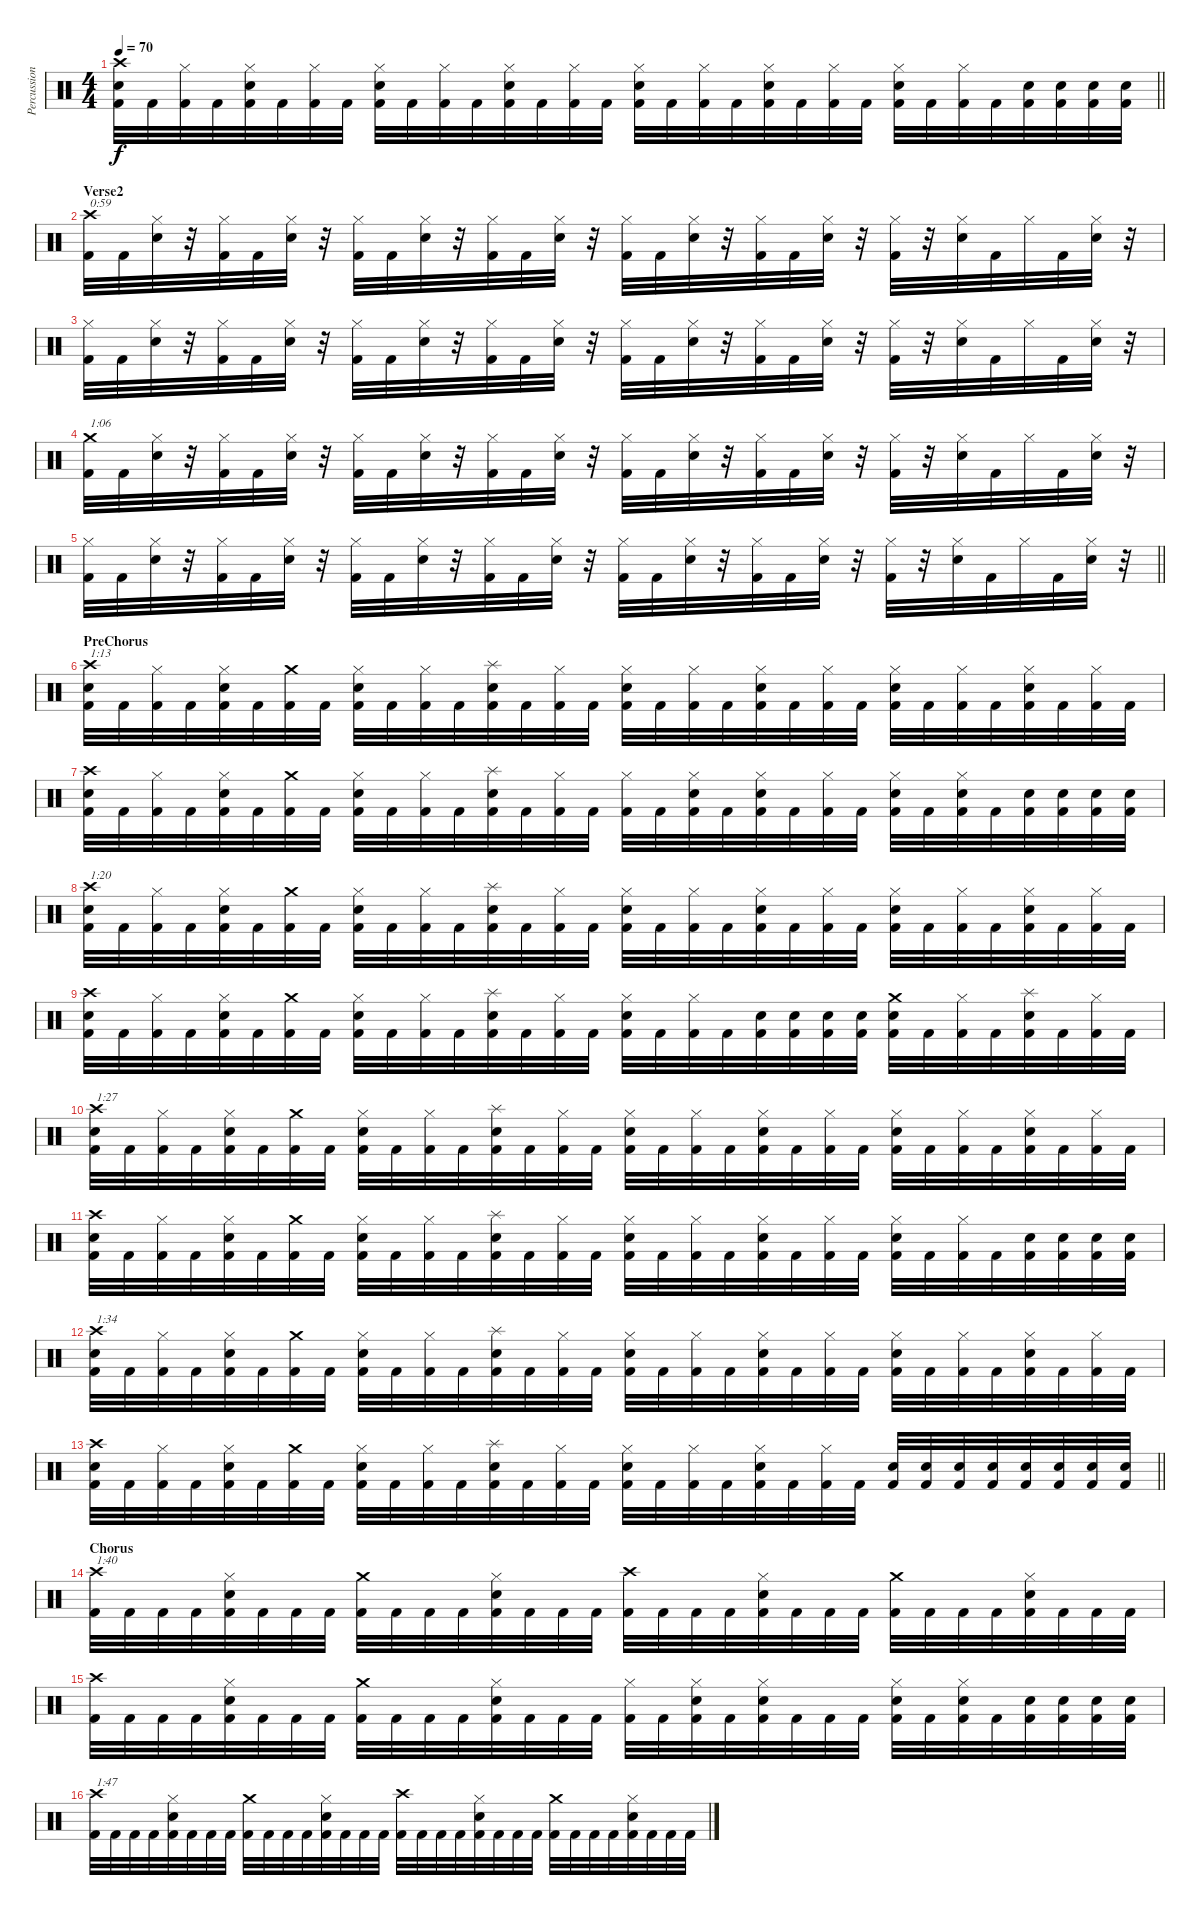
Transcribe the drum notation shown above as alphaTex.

\track ("Percussion" "Percussion") {instrument percussion}
\staff {score}
\articulation defaults
\ts (4 4)
\tempo 70
\clef neutral
\barLineRight lightlight
\ks c
("Crash high (hit)" "Snare (hit) 2" "Kick (hit) 2").32{dy f} "Kick (hit) 2".32 ("Hi-Hat (closed)" "Kick (hit) 2").32 "Kick (hit) 2".32 ("Hi-Hat (closed)" "Snare (hit) 2" "Kick (hit) 2").32 "Kick (hit) 2".32 ("Hi-Hat (closed)" "Kick (hit) 2").32 "Kick (hit) 2".32 ("Hi-Hat (closed)" "Snare (hit) 2" "Kick (hit) 2").32 "Kick (hit) 2".32 ("Hi-Hat (closed)" "Kick (hit) 2").32 "Kick (hit) 2".32 ("Hi-Hat (closed)" "Snare (hit) 2" "Kick (hit) 2").32 "Kick (hit) 2".32 ("Hi-Hat (closed)" "Kick (hit) 2").32 "Kick (hit) 2".32 ("Hi-Hat (closed)" "Snare (hit) 2" "Kick (hit) 2").32 "Kick (hit) 2".32 ("Hi-Hat (closed)" "Kick (hit) 2").32 "Kick (hit) 2".32 ("Hi-Hat (closed)" "Snare (hit) 2" "Kick (hit) 2").32 "Kick (hit) 2".32 ("Hi-Hat (closed)" "Kick (hit) 2").32 "Kick (hit) 2".32 ("Hi-Hat (closed)" "Snare (hit) 2" "Kick (hit) 2").32 "Kick (hit) 2".32 ("Hi-Hat (closed)" "Kick (hit) 2").32 "Kick (hit) 2".32 ("Snare (hit) 2" "Kick (hit) 2").32 ("Snare (hit) 2" "Kick (hit) 2").32 ("Snare (hit) 2" "Kick (hit) 2").32 ("Snare (hit) 2" "Kick (hit) 2").32 |
\section ("" "Verse2")
("Crash high (hit)" "Kick (hit) 2").32{txt "0:59"} "Kick (hit) 2".32 ("Hi-Hat (closed)" "Snare (hit) 2").32 r.32 ("Hi-Hat (closed)" "Kick (hit) 2").32 "Kick (hit) 2".32 ("Hi-Hat (closed)" "Snare (hit) 2").32 r.32 ("Hi-Hat (closed)" "Kick (hit) 2").32 "Kick (hit) 2".32 ("Hi-Hat (closed)" "Snare (hit) 2").32 r.32 ("Hi-Hat (closed)" "Kick (hit) 2").32 "Kick (hit) 2".32 ("Hi-Hat (closed)" "Snare (hit) 2").32 r.32 ("Hi-Hat (closed)" "Kick (hit) 2").32 "Kick (hit) 2".32 ("Hi-Hat (closed)" "Snare (hit) 2").32 r.32 ("Hi-Hat (closed)" "Kick (hit) 2").32 "Kick (hit) 2".32 ("Hi-Hat (closed)" "Snare (hit) 2").32 r.32 ("Hi-Hat (closed)" "Kick (hit) 2").32 r.32 ("Hi-Hat (closed)" "Snare (hit) 2").32 "Kick (hit) 2".32 "Hi-Hat (closed)".32 "Kick (hit) 2".32 ("Hi-Hat (closed)" "Snare (hit) 2").32 r.32 |
("Hi-Hat (closed)" "Kick (hit) 2").32 "Kick (hit) 2".32 ("Hi-Hat (closed)" "Snare (hit) 2").32 r.32 ("Hi-Hat (closed)" "Kick (hit) 2").32 "Kick (hit) 2".32 ("Hi-Hat (closed)" "Snare (hit) 2").32 r.32 ("Hi-Hat (closed)" "Kick (hit) 2").32 "Kick (hit) 2".32 ("Hi-Hat (closed)" "Snare (hit) 2").32 r.32 ("Hi-Hat (closed)" "Kick (hit) 2").32 "Kick (hit) 2".32 ("Hi-Hat (closed)" "Snare (hit) 2").32 r.32 ("Hi-Hat (closed)" "Kick (hit) 2").32 "Kick (hit) 2".32 ("Hi-Hat (closed)" "Snare (hit) 2").32 r.32 ("Hi-Hat (closed)" "Kick (hit) 2").32 "Kick (hit) 2".32 ("Hi-Hat (closed)" "Snare (hit) 2").32 r.32 ("Hi-Hat (closed)" "Kick (hit) 2").32 r.32 ("Hi-Hat (closed)" "Snare (hit) 2").32 "Kick (hit) 2".32 "Hi-Hat (closed)".32 "Kick (hit) 2".32 ("Hi-Hat (closed)" "Snare (hit) 2").32 r.32 |
("Crash medium (hit)" "Kick (hit) 2").32{txt "1:06"} "Kick (hit) 2".32 ("Hi-Hat (closed)" "Snare (hit) 2").32 r.32 ("Hi-Hat (closed)" "Kick (hit) 2").32 "Kick (hit) 2".32 ("Hi-Hat (closed)" "Snare (hit) 2").32 r.32 ("Hi-Hat (closed)" "Kick (hit) 2").32 "Kick (hit) 2".32 ("Hi-Hat (closed)" "Snare (hit) 2").32 r.32 ("Hi-Hat (closed)" "Kick (hit) 2").32 "Kick (hit) 2".32 ("Hi-Hat (closed)" "Snare (hit) 2").32 r.32 ("Hi-Hat (closed)" "Kick (hit) 2").32 "Kick (hit) 2".32 ("Hi-Hat (closed)" "Snare (hit) 2").32 r.32 ("Hi-Hat (closed)" "Kick (hit) 2").32 "Kick (hit) 2".32 ("Hi-Hat (closed)" "Snare (hit) 2").32 r.32 ("Hi-Hat (closed)" "Kick (hit) 2").32 r.32 ("Hi-Hat (closed)" "Snare (hit) 2").32 "Kick (hit) 2".32 "Hi-Hat (closed)".32 "Kick (hit) 2".32 ("Hi-Hat (closed)" "Snare (hit) 2").32 r.32 |
\barLineRight lightlight
("Hi-Hat (closed)" "Kick (hit) 2").32 "Kick (hit) 2".32 ("Hi-Hat (closed)" "Snare (hit) 2").32 r.32 ("Hi-Hat (closed)" "Kick (hit) 2").32 "Kick (hit) 2".32 ("Hi-Hat (closed)" "Snare (hit) 2").32 r.32 ("Hi-Hat (closed)" "Kick (hit) 2").32 "Kick (hit) 2".32 ("Hi-Hat (closed)" "Snare (hit) 2").32 r.32 ("Hi-Hat (closed)" "Kick (hit) 2").32 "Kick (hit) 2".32 ("Hi-Hat (closed)" "Snare (hit) 2").32 r.32 ("Hi-Hat (closed)" "Kick (hit) 2").32 "Kick (hit) 2".32 ("Hi-Hat (closed)" "Snare (hit) 2").32 r.32 ("Hi-Hat (closed)" "Kick (hit) 2").32 "Kick (hit) 2".32 ("Hi-Hat (closed)" "Snare (hit) 2").32 r.32 ("Hi-Hat (closed)" "Kick (hit) 2").32 r.32 ("Hi-Hat (closed)" "Snare (hit) 2").32 "Kick (hit) 2".32 "Hi-Hat (closed)".32 "Kick (hit) 2".32 ("Hi-Hat (closed)" "Snare (hit) 2").32 r.32 |
\section ("" "PreChorus")
("Crash high (hit)" "Snare (hit) 2" "Kick (hit) 2").32{txt "1:13"} "Kick (hit) 2".32 ("Hi-Hat (closed)" "Kick (hit) 2").32 "Kick (hit) 2".32 ("Hi-Hat (closed)" "Snare (hit) 2" "Kick (hit) 2").32 "Kick (hit) 2".32 ("Crash medium (hit)" "Kick (hit) 2").32 "Kick (hit) 2".32 ("Hi-Hat (closed)" "Snare (hit) 2" "Kick (hit) 2").32 "Kick (hit) 2".32 ("Hi-Hat (closed)" "Kick (hit) 2").32 "Kick (hit) 2".32 ("Splash (hit)" "Snare (hit) 2" "Kick (hit) 2").32 "Kick (hit) 2".32 ("Hi-Hat (closed)" "Kick (hit) 2").32 "Kick (hit) 2".32 ("Hi-Hat (closed)" "Snare (hit) 2" "Kick (hit) 2").32 "Kick (hit) 2".32 ("Hi-Hat (closed)" "Kick (hit) 2").32 "Kick (hit) 2".32 ("Hi-Hat (closed)" "Snare (hit) 2" "Kick (hit) 2").32 "Kick (hit) 2".32 ("Hi-Hat (closed)" "Kick (hit) 2").32 "Kick (hit) 2".32 ("Hi-Hat (closed)" "Snare (hit) 2" "Kick (hit) 2").32 "Kick (hit) 2".32 ("Hi-Hat (closed)" "Kick (hit) 2").32 "Kick (hit) 2".32 ("Hi-Hat (closed)" "Snare (hit) 2" "Kick (hit) 2").32 "Kick (hit) 2".32 ("Hi-Hat (closed)" "Kick (hit) 2").32 "Kick (hit) 2".32 |
("Crash high (hit)" "Snare (hit) 2" "Kick (hit) 2").32 "Kick (hit) 2".32 ("Hi-Hat (closed)" "Kick (hit) 2").32 "Kick (hit) 2".32 ("Hi-Hat (closed)" "Snare (hit) 2" "Kick (hit) 2").32 "Kick (hit) 2".32 ("Crash medium (hit)" "Kick (hit) 2").32 "Kick (hit) 2".32 ("Hi-Hat (closed)" "Snare (hit) 2" "Kick (hit) 2").32 "Kick (hit) 2".32 ("Hi-Hat (closed)" "Kick (hit) 2").32 "Kick (hit) 2".32 ("Splash (hit)" "Snare (hit) 2" "Kick (hit) 2").32 "Kick (hit) 2".32 ("Hi-Hat (closed)" "Kick (hit) 2").32 "Kick (hit) 2".32 ("Hi-Hat (closed)" "Kick (hit) 2").32 "Kick (hit) 2".32 ("Hi-Hat (closed)" "Snare (hit) 2" "Kick (hit) 2").32 "Kick (hit) 2".32 ("Hi-Hat (closed)" "Snare (hit) 2" "Kick (hit) 2").32 "Kick (hit) 2".32 ("Hi-Hat (closed)" "Kick (hit) 2").32 "Kick (hit) 2".32 ("Hi-Hat (closed)" "Snare (hit) 2" "Kick (hit) 2").32 "Kick (hit) 2".32 ("Hi-Hat (closed)" "Snare (hit) 2" "Kick (hit) 2").32 "Kick (hit) 2".32 ("Snare (hit) 2" "Kick (hit) 2").32 ("Snare (hit) 2" "Kick (hit) 2").32 ("Snare (hit) 2" "Kick (hit) 2").32 ("Snare (hit) 2" "Kick (hit) 2").32 |
("Crash high (hit)" "Snare (hit) 2" "Kick (hit) 2").32{txt "1:20"} "Kick (hit) 2".32 ("Hi-Hat (closed)" "Kick (hit) 2").32 "Kick (hit) 2".32 ("Hi-Hat (closed)" "Snare (hit) 2" "Kick (hit) 2").32 "Kick (hit) 2".32 ("Crash medium (hit)" "Kick (hit) 2").32 "Kick (hit) 2".32 ("Hi-Hat (closed)" "Snare (hit) 2" "Kick (hit) 2").32 "Kick (hit) 2".32 ("Hi-Hat (closed)" "Kick (hit) 2").32 "Kick (hit) 2".32 ("Splash (hit)" "Snare (hit) 2" "Kick (hit) 2").32 "Kick (hit) 2".32 ("Hi-Hat (closed)" "Kick (hit) 2").32 "Kick (hit) 2".32 ("Hi-Hat (closed)" "Snare (hit) 2" "Kick (hit) 2").32 "Kick (hit) 2".32 ("Hi-Hat (closed)" "Kick (hit) 2").32 "Kick (hit) 2".32 ("Hi-Hat (closed)" "Snare (hit) 2" "Kick (hit) 2").32 "Kick (hit) 2".32 ("Hi-Hat (closed)" "Kick (hit) 2").32 "Kick (hit) 2".32 ("Hi-Hat (closed)" "Snare (hit) 2" "Kick (hit) 2").32 "Kick (hit) 2".32 ("Hi-Hat (closed)" "Kick (hit) 2").32 "Kick (hit) 2".32 ("Hi-Hat (closed)" "Snare (hit) 2" "Kick (hit) 2").32 "Kick (hit) 2".32 ("Hi-Hat (closed)" "Kick (hit) 2").32 "Kick (hit) 2".32 |
("Crash high (hit)" "Snare (hit) 2" "Kick (hit) 2").32 "Kick (hit) 2".32 ("Hi-Hat (closed)" "Kick (hit) 2").32 "Kick (hit) 2".32 ("Hi-Hat (closed)" "Snare (hit) 2" "Kick (hit) 2").32 "Kick (hit) 2".32 ("Crash medium (hit)" "Kick (hit) 2").32 "Kick (hit) 2".32 ("Hi-Hat (closed)" "Snare (hit) 2" "Kick (hit) 2").32 "Kick (hit) 2".32 ("Hi-Hat (closed)" "Kick (hit) 2").32 "Kick (hit) 2".32 ("Splash (hit)" "Snare (hit) 2" "Kick (hit) 2").32 "Kick (hit) 2".32 ("Hi-Hat (closed)" "Kick (hit) 2").32 "Kick (hit) 2".32 ("Hi-Hat (closed)" "Snare (hit) 2" "Kick (hit) 2").32 "Kick (hit) 2".32 ("Hi-Hat (closed)" "Kick (hit) 2").32 "Kick (hit) 2".32 ("Snare (hit) 2" "Kick (hit) 2").32 ("Snare (hit) 2" "Kick (hit) 2").32 ("Snare (hit) 2" "Kick (hit) 2").32 ("Snare (hit) 2" "Kick (hit) 2").32 ("Crash medium (hit)" "Snare (hit) 2" "Kick (hit) 2").32 "Kick (hit) 2".32 ("Hi-Hat (closed)" "Kick (hit) 2").32 "Kick (hit) 2".32 ("Splash (hit)" "Snare (hit) 2" "Kick (hit) 2").32 "Kick (hit) 2".32 ("Hi-Hat (closed)" "Kick (hit) 2").32 "Kick (hit) 2".32 |
("Crash high (hit)" "Snare (hit) 2" "Kick (hit) 2").32{txt "1:27"} "Kick (hit) 2".32 ("Hi-Hat (closed)" "Kick (hit) 2").32 "Kick (hit) 2".32 ("Hi-Hat (closed)" "Snare (hit) 2" "Kick (hit) 2").32 "Kick (hit) 2".32 ("Crash medium (hit)" "Kick (hit) 2").32 "Kick (hit) 2".32 ("Hi-Hat (closed)" "Snare (hit) 2" "Kick (hit) 2").32 "Kick (hit) 2".32 ("Hi-Hat (closed)" "Kick (hit) 2").32 "Kick (hit) 2".32 ("Splash (hit)" "Snare (hit) 2" "Kick (hit) 2").32 "Kick (hit) 2".32 ("Hi-Hat (closed)" "Kick (hit) 2").32 "Kick (hit) 2".32 ("Hi-Hat (closed)" "Snare (hit) 2" "Kick (hit) 2").32 "Kick (hit) 2".32 ("Hi-Hat (closed)" "Kick (hit) 2").32 "Kick (hit) 2".32 ("Hi-Hat (closed)" "Snare (hit) 2" "Kick (hit) 2").32 "Kick (hit) 2".32 ("Hi-Hat (closed)" "Kick (hit) 2").32 "Kick (hit) 2".32 ("Hi-Hat (closed)" "Snare (hit) 2" "Kick (hit) 2").32 "Kick (hit) 2".32 ("Hi-Hat (closed)" "Kick (hit) 2").32 "Kick (hit) 2".32 ("Hi-Hat (closed)" "Snare (hit) 2" "Kick (hit) 2").32 "Kick (hit) 2".32 ("Hi-Hat (closed)" "Kick (hit) 2").32 "Kick (hit) 2".32 |
("Crash high (hit)" "Snare (hit) 2" "Kick (hit) 2").32 "Kick (hit) 2".32 ("Hi-Hat (closed)" "Kick (hit) 2").32 "Kick (hit) 2".32 ("Hi-Hat (closed)" "Snare (hit) 2" "Kick (hit) 2").32 "Kick (hit) 2".32 ("Crash medium (hit)" "Kick (hit) 2").32 "Kick (hit) 2".32 ("Hi-Hat (closed)" "Snare (hit) 2" "Kick (hit) 2").32 "Kick (hit) 2".32 ("Hi-Hat (closed)" "Kick (hit) 2").32 "Kick (hit) 2".32 ("Splash (hit)" "Snare (hit) 2" "Kick (hit) 2").32 "Kick (hit) 2".32 ("Hi-Hat (closed)" "Kick (hit) 2").32 "Kick (hit) 2".32 ("Hi-Hat (closed)" "Snare (hit) 2" "Kick (hit) 2").32 "Kick (hit) 2".32 ("Hi-Hat (closed)" "Kick (hit) 2").32 "Kick (hit) 2".32 ("Hi-Hat (closed)" "Snare (hit) 2" "Kick (hit) 2").32 "Kick (hit) 2".32 ("Hi-Hat (closed)" "Kick (hit) 2").32 "Kick (hit) 2".32 ("Hi-Hat (closed)" "Snare (hit) 2" "Kick (hit) 2").32 "Kick (hit) 2".32 ("Hi-Hat (closed)" "Kick (hit) 2").32 "Kick (hit) 2".32 ("Snare (hit) 2" "Kick (hit) 2").32 ("Snare (hit) 2" "Kick (hit) 2").32 ("Snare (hit) 2" "Kick (hit) 2").32 ("Snare (hit) 2" "Kick (hit) 2").32 |
("Crash high (hit)" "Snare (hit) 2" "Kick (hit) 2").32{txt "1:34"} "Kick (hit) 2".32 ("Hi-Hat (closed)" "Kick (hit) 2").32 "Kick (hit) 2".32 ("Hi-Hat (closed)" "Snare (hit) 2" "Kick (hit) 2").32 "Kick (hit) 2".32 ("Crash medium (hit)" "Kick (hit) 2").32 "Kick (hit) 2".32 ("Hi-Hat (closed)" "Snare (hit) 2" "Kick (hit) 2").32 "Kick (hit) 2".32 ("Hi-Hat (closed)" "Kick (hit) 2").32 "Kick (hit) 2".32 ("Splash (hit)" "Snare (hit) 2" "Kick (hit) 2").32 "Kick (hit) 2".32 ("Hi-Hat (closed)" "Kick (hit) 2").32 "Kick (hit) 2".32 ("Hi-Hat (closed)" "Snare (hit) 2" "Kick (hit) 2").32 "Kick (hit) 2".32 ("Hi-Hat (closed)" "Kick (hit) 2").32 "Kick (hit) 2".32 ("Hi-Hat (closed)" "Snare (hit) 2" "Kick (hit) 2").32 "Kick (hit) 2".32 ("Hi-Hat (closed)" "Kick (hit) 2").32 "Kick (hit) 2".32 ("Hi-Hat (closed)" "Snare (hit) 2" "Kick (hit) 2").32 "Kick (hit) 2".32 ("Hi-Hat (closed)" "Kick (hit) 2").32 "Kick (hit) 2".32 ("Hi-Hat (closed)" "Snare (hit) 2" "Kick (hit) 2").32 "Kick (hit) 2".32 ("Hi-Hat (closed)" "Kick (hit) 2").32 "Kick (hit) 2".32 |
\barLineRight lightlight
("Crash high (hit)" "Snare (hit) 2" "Kick (hit) 2").32 "Kick (hit) 2".32 ("Hi-Hat (closed)" "Kick (hit) 2").32 "Kick (hit) 2".32 ("Hi-Hat (closed)" "Snare (hit) 2" "Kick (hit) 2").32 "Kick (hit) 2".32 ("Crash medium (hit)" "Kick (hit) 2").32 "Kick (hit) 2".32 ("Hi-Hat (closed)" "Snare (hit) 2" "Kick (hit) 2").32 "Kick (hit) 2".32 ("Hi-Hat (closed)" "Kick (hit) 2").32 "Kick (hit) 2".32 ("Splash (hit)" "Snare (hit) 2" "Kick (hit) 2").32 "Kick (hit) 2".32 ("Hi-Hat (closed)" "Kick (hit) 2").32 "Kick (hit) 2".32 ("Hi-Hat (closed)" "Snare (hit) 2" "Kick (hit) 2").32 "Kick (hit) 2".32 ("Hi-Hat (closed)" "Kick (hit) 2").32 "Kick (hit) 2".32 ("Hi-Hat (closed)" "Snare (hit) 2" "Kick (hit) 2").32 "Kick (hit) 2".32 ("Hi-Hat (closed)" "Kick (hit) 2").32 "Kick (hit) 2".32 ("Snare (hit) 2" "Kick (hit) 2").32 ("Snare (hit) 2" "Kick (hit) 2").32 ("Snare (hit) 2" "Kick (hit) 2").32 ("Snare (hit) 2" "Kick (hit) 2").32 ("Snare (hit) 2" "Kick (hit) 2").32 ("Snare (hit) 2" "Kick (hit) 2").32 ("Snare (hit) 2" "Kick (hit) 2").32 ("Snare (hit) 2" "Kick (hit) 2").32 |
\section ("" "Chorus")
("Crash high (hit)" "Kick (hit) 2").32{txt "1:40"} "Kick (hit) 2".32 "Kick (hit) 2".32 "Kick (hit) 2".32 ("Hi-Hat (closed)" "Snare (hit) 2" "Kick (hit) 2").32 "Kick (hit) 2".32 "Kick (hit) 2".32 "Kick (hit) 2".32 ("Crash medium (hit)" "Kick (hit) 2").32 "Kick (hit) 2".32 "Kick (hit) 2".32 "Kick (hit) 2".32 ("Hi-Hat (closed)" "Snare (hit) 2" "Kick (hit) 2").32 "Kick (hit) 2".32 "Kick (hit) 2".32 "Kick (hit) 2".32 ("Crash high (hit)" "Kick (hit) 2").32 "Kick (hit) 2".32 "Kick (hit) 2".32 "Kick (hit) 2".32 ("Hi-Hat (closed)" "Snare (hit) 2" "Kick (hit) 2").32 "Kick (hit) 2".32 "Kick (hit) 2".32 "Kick (hit) 2".32 ("Crash medium (hit)" "Kick (hit) 2").32 "Kick (hit) 2".32 "Kick (hit) 2".32 "Kick (hit) 2".32 ("Hi-Hat (closed)" "Snare (hit) 2" "Kick (hit) 2").32 "Kick (hit) 2".32 "Kick (hit) 2".32 "Kick (hit) 2".32 |
("Crash high (hit)" "Kick (hit) 2").32 "Kick (hit) 2".32 "Kick (hit) 2".32 "Kick (hit) 2".32 ("Hi-Hat (closed)" "Snare (hit) 2" "Kick (hit) 2").32 "Kick (hit) 2".32 "Kick (hit) 2".32 "Kick (hit) 2".32 ("Crash medium (hit)" "Kick (hit) 2").32 "Kick (hit) 2".32 "Kick (hit) 2".32 "Kick (hit) 2".32 ("Hi-Hat (closed)" "Snare (hit) 2" "Kick (hit) 2").32 "Kick (hit) 2".32 "Kick (hit) 2".32 "Kick (hit) 2".32 ("Hi-Hat (closed)" "Kick (hit) 2").32 "Kick (hit) 2".32 ("Hi-Hat (closed)" "Snare (hit) 2" "Kick (hit) 2").32 "Kick (hit) 2".32 ("Hi-Hat (closed)" "Snare (hit) 2" "Kick (hit) 2").32 "Kick (hit) 2".32 "Kick (hit) 2".32 "Kick (hit) 2".32 ("Hi-Hat (closed)" "Snare (hit) 2" "Kick (hit) 2").32 "Kick (hit) 2".32 ("Hi-Hat (closed)" "Snare (hit) 2" "Kick (hit) 2").32 "Kick (hit) 2".32 ("Snare (hit) 2" "Kick (hit) 2").32 ("Snare (hit) 2" "Kick (hit) 2").32 ("Snare (hit) 2" "Kick (hit) 2").32 ("Snare (hit) 2" "Kick (hit) 2").32 |
("Crash high (hit)" "Kick (hit) 2").32{txt "1:47"} "Kick (hit) 2".32 "Kick (hit) 2".32 "Kick (hit) 2".32 ("Hi-Hat (closed)" "Snare (hit) 2" "Kick (hit) 2").32 "Kick (hit) 2".32 "Kick (hit) 2".32 "Kick (hit) 2".32 ("Crash medium (hit)" "Kick (hit) 2").32 "Kick (hit) 2".32 "Kick (hit) 2".32 "Kick (hit) 2".32 ("Hi-Hat (closed)" "Snare (hit) 2" "Kick (hit) 2").32 "Kick (hit) 2".32 "Kick (hit) 2".32 "Kick (hit) 2".32 ("Crash high (hit)" "Kick (hit) 2").32 "Kick (hit) 2".32 "Kick (hit) 2".32 "Kick (hit) 2".32 ("Hi-Hat (closed)" "Snare (hit) 2" "Kick (hit) 2").32 "Kick (hit) 2".32 "Kick (hit) 2".32 "Kick (hit) 2".32 ("Crash medium (hit)" "Kick (hit) 2").32 "Kick (hit) 2".32 "Kick (hit) 2".32 "Kick (hit) 2".32 ("Hi-Hat (closed)" "Snare (hit) 2" "Kick (hit) 2").32 "Kick (hit) 2".32 "Kick (hit) 2".32 "Kick (hit) 2".32
